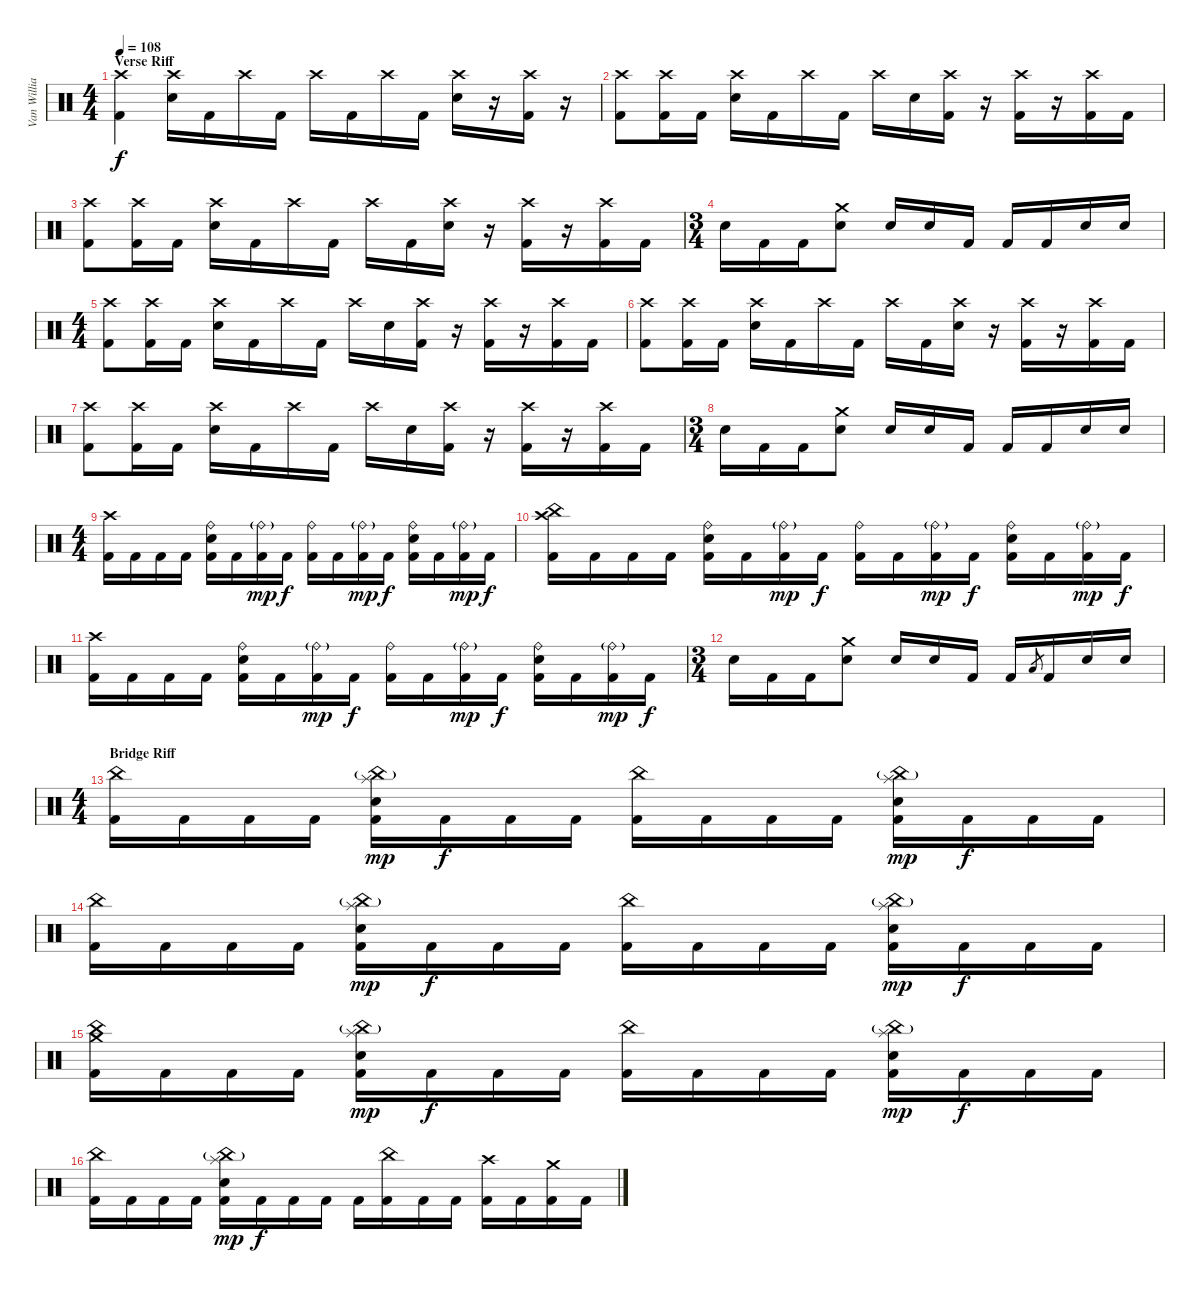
\track ("Van Williams" "Van Willia") {instrument percussion}
\staff {score}
\articulation defaults
\ts (4 4)
\section ("" "Verse Riff")
\tempo 108
\clef neutral
\ks c
("Crash high (hit)" "Kick (hit) 2").4{dy f} ("Crash high (hit)" "Snare (hit) 2").16 "Kick (hit) 2".16 "Crash high (hit)".16 "Kick (hit) 2".16 "Crash high (hit)".16 "Kick (hit) 2".16 "Crash high (hit)".16 "Kick (hit) 2".16 ("Crash high (hit)" "Snare (hit) 2").16 r.16 ("Crash high (hit)" "Kick (hit) 2").16 r.16 |
("Crash high (hit)" "Kick (hit) 2").8 ("Crash high (hit)" "Kick (hit) 2").16 "Kick (hit) 2".16 ("Crash high (hit)" "Snare (hit) 2").16 "Kick (hit) 2".16 "Crash high (hit)".16 "Kick (hit) 2".16 "Crash high (hit)".16 "Snare (hit) 2".16 ("Crash high (hit)" "Kick (hit) 2").16 r.16 ("Crash high (hit)" "Kick (hit) 2").16 r.16 ("Crash high (hit)" "Kick (hit) 2").16 "Kick (hit) 2".16 |
("Crash high (hit)" "Kick (hit) 2").8 ("Crash high (hit)" "Kick (hit) 2").16 "Kick (hit) 2".16 ("Crash high (hit)" "Snare (hit) 2").16 "Kick (hit) 2".16 "Crash high (hit)".16 "Kick (hit) 2".16 "Crash high (hit)".16 "Kick (hit) 2".16 ("Crash high (hit)" "Snare (hit) 2").16 r.16 ("Crash high (hit)" "Kick (hit) 2").16 r.16 ("Crash high (hit)" "Kick (hit) 2").16 "Kick (hit) 2".16 |
\ts (3 4)
"Snare (hit) 2".16 "Kick (hit) 2".16 "Kick (hit) 2".16 ("Crash medium (hit)" "Snare (hit) 2").8 "Snare (hit) 2".16 "Snare (hit) 2".16 "Kick (hit) 2".16 "Kick (hit) 2".16 "Kick (hit) 2".16 "Electric Snare (hit)".16 "Snare (hit) 2".16 |
\ts (4 4)
("Crash high (hit)" "Kick (hit) 2").8 ("Crash high (hit)" "Kick (hit) 2").16 "Kick (hit) 2".16 ("Crash high (hit)" "Snare (hit) 2").16 "Kick (hit) 2".16 "Crash high (hit)".16 "Kick (hit) 2".16 "Crash high (hit)".16 "Snare (hit) 2".16 ("Crash high (hit)" "Kick (hit) 2").16 r.16 ("Crash high (hit)" "Kick (hit) 2").16 r.16 ("Crash high (hit)" "Kick (hit) 2").16 "Kick (hit) 2".16 |
("Crash high (hit)" "Kick (hit) 2").8 ("Crash high (hit)" "Kick (hit) 2").16 "Kick (hit) 2".16 ("Crash high (hit)" "Snare (hit) 2").16 "Kick (hit) 2".16 "Crash high (hit)".16 "Kick (hit) 2".16 "Crash high (hit)".16 "Kick (hit) 2".16 ("Crash high (hit)" "Snare (hit) 2").16 r.16 ("Crash high (hit)" "Kick (hit) 2").16 r.16 ("Crash high (hit)" "Kick (hit) 2").16 "Kick (hit) 2".16 |
("Crash high (hit)" "Kick (hit) 2").8 ("Crash high (hit)" "Kick (hit) 2").16 "Kick (hit) 2".16 ("Crash high (hit)" "Snare (hit) 2").16 "Kick (hit) 2".16 "Crash high (hit)".16 "Kick (hit) 2".16 "Crash high (hit)".16 "Snare (hit) 2".16 ("Crash high (hit)" "Kick (hit) 2").16 r.16 ("Crash high (hit)" "Kick (hit) 2").16 r.16 ("Crash high (hit)" "Kick (hit) 2").16 "Kick (hit) 2".16 |
\ts (3 4)
"Snare (hit) 2".16 "Kick (hit) 2".16 "Kick (hit) 2".16 ("Crash medium (hit)" "Snare (hit) 2").8 "Snare (hit) 2".16 "Snare (hit) 2".16 "Kick (hit) 2".16 "Kick (hit) 2".16 "Kick (hit) 2".16 "Electric Snare (hit)".16 "Snare (hit) 2".16 |
\ts (4 4)
("Crash high (hit)" "Kick (hit) 2").16 "Kick (hit) 2".16 "Kick (hit) 2".16 "Kick (hit) 2".16 ("Ride (bell)" "Electric Snare (hit)" "Kick (hit) 2").16 "Kick (hit) 2".16 ("Ride (bell)"{g} "Kick (hit) 2").16{dy mp} "Kick (hit) 2".16{dy f} ("Ride (bell)" "Kick (hit) 2").16 "Kick (hit) 2".16 ("Ride (bell)"{g} "Kick (hit) 2").16{dy mp} "Kick (hit) 2".16{dy f} ("Ride (bell)" "Electric Snare (hit)" "Kick (hit) 2").16 "Kick (hit) 2".16 ("Ride (bell)"{g} "Kick (hit) 2").16{dy mp} "Kick (hit) 2".16{dy f} |
("Crash high (hit)" "China (hit)" "Kick (hit) 2").16 "Kick (hit) 2".16 "Kick (hit) 2".16 "Kick (hit) 2".16 ("Ride (bell)" "Electric Snare (hit)" "Kick (hit) 2").16 "Kick (hit) 2".16 ("Ride (bell)"{g} "Kick (hit) 2").16{dy mp} "Kick (hit) 2".16{dy f} ("Ride (bell)" "Kick (hit) 2").16 "Kick (hit) 2".16 ("Ride (bell)"{g} "Kick (hit) 2").16{dy mp} "Kick (hit) 2".16{dy f} ("Ride (bell)" "Electric Snare (hit)" "Kick (hit) 2").16 "Kick (hit) 2".16 ("Ride (bell)"{g} "Kick (hit) 2").16{dy mp} "Kick (hit) 2".16{dy f} |
("Crash high (hit)" "Kick (hit) 2").16 "Kick (hit) 2".16 "Kick (hit) 2".16 "Kick (hit) 2".16 ("Ride (bell)" "Electric Snare (hit)" "Kick (hit) 2").16 "Kick (hit) 2".16 ("Ride (bell)"{g} "Kick (hit) 2").16{dy mp} "Kick (hit) 2".16{dy f} ("Ride (bell)" "Kick (hit) 2").16 "Kick (hit) 2".16 ("Ride (bell)"{g} "Kick (hit) 2").16{dy mp} "Kick (hit) 2".16{dy f} ("Ride (bell)" "Electric Snare (hit)" "Kick (hit) 2").16 "Kick (hit) 2".16 ("Ride (bell)"{g} "Kick (hit) 2").16{dy mp} "Kick (hit) 2".16{dy f} |
\ts (3 4)
"Snare (hit) 2".16 "Kick (hit) 2".16 "Kick (hit) 2".16 ("Crash medium (hit)" "Snare (hit) 2").8 "Snare (hit) 2".16 "Snare (hit) 2".16 "Kick (hit) 2".16 "Kick (hit) 2".16 "Low Tom (hit)".8{gr} "Kick (hit) 2".16 "Electric Snare (hit)".16 "Snare (hit) 2".16 |
\ts (4 4)
\section ("" "Bridge Riff")
("China (hit)" "Kick (hit) 2").16 "Kick (hit) 2".16 "Kick (hit) 2".16 "Kick (hit) 2".16 ("Splash (hit)" "China (hit)"{g} "Electric Snare (hit)" "Kick (hit) 2").16{dy mp} "Kick (hit) 2".16{dy f} "Kick (hit) 2".16 "Kick (hit) 2".16 ("China (hit)" "Kick (hit) 2").16 "Kick (hit) 2".16 "Kick (hit) 2".16 "Kick (hit) 2".16 ("Splash (hit)" "China (hit)"{g} "Electric Snare (hit)" "Kick (hit) 2").16{dy mp} "Kick (hit) 2".16{dy f} "Kick (hit) 2".16 "Kick (hit) 2".16 |
("China (hit)" "Kick (hit) 2").16 "Kick (hit) 2".16 "Kick (hit) 2".16 "Kick (hit) 2".16 ("Splash (hit)" "China (hit)"{g} "Electric Snare (hit)" "Kick (hit) 2").16{dy mp} "Kick (hit) 2".16{dy f} "Kick (hit) 2".16 "Kick (hit) 2".16 ("China (hit)" "Kick (hit) 2").16 "Kick (hit) 2".16 "Kick (hit) 2".16 "Kick (hit) 2".16 ("Splash (hit)" "China (hit)"{g} "Electric Snare (hit)" "Kick (hit) 2").16{dy mp} "Kick (hit) 2".16{dy f} "Kick (hit) 2".16 "Kick (hit) 2".16 |
("China (hit)" "Crash medium (hit)" "Kick (hit) 2").16 "Kick (hit) 2".16 "Kick (hit) 2".16 "Kick (hit) 2".16 ("Splash (hit)" "China (hit)"{g} "Electric Snare (hit)" "Kick (hit) 2").16{dy mp} "Kick (hit) 2".16{dy f} "Kick (hit) 2".16 "Kick (hit) 2".16 ("China (hit)" "Kick (hit) 2").16 "Kick (hit) 2".16 "Kick (hit) 2".16 "Kick (hit) 2".16 ("Splash (hit)" "China (hit)"{g} "Electric Snare (hit)" "Kick (hit) 2").16{dy mp} "Kick (hit) 2".16{dy f} "Kick (hit) 2".16 "Kick (hit) 2".16 |
("China (hit)" "Kick (hit) 2").16 "Kick (hit) 2".16 "Kick (hit) 2".16 "Kick (hit) 2".16 ("Splash (hit)" "China (hit)"{g} "Electric Snare (hit)" "Kick (hit) 2").16{dy mp} "Kick (hit) 2".16{dy f} "Kick (hit) 2".16 "Kick (hit) 2".16 "Kick (hit) 2".16 ("China (hit)" "Kick (hit) 2").16 "Kick (hit) 2".16 "Kick (hit) 2".16 ("Crash high (hit)" "Kick (hit) 2").16 "Kick (hit) 2".16 ("Crash medium (hit)" "Kick (hit) 2").16 "Kick (hit) 2".16
